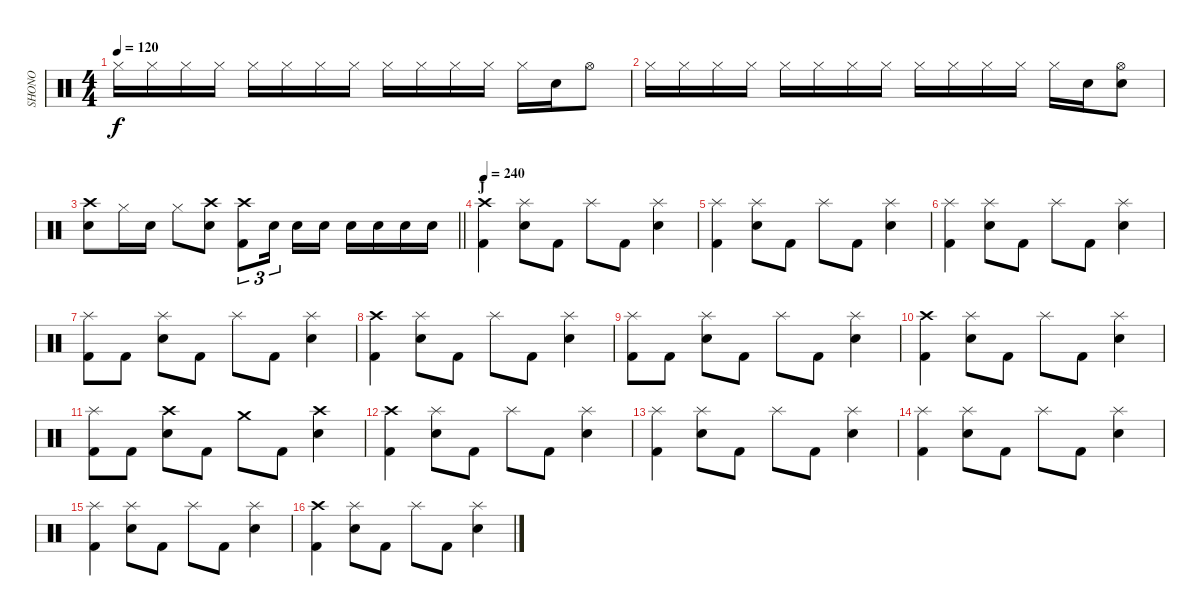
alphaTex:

\track ("SHONO" "SHONO") {instrument percussion}
\staff {score}
\articulation defaults
\ts (4 4)
\tempo 120
\clef neutral
\ks c "Hi-Hat (closed)".16{dy f} "Hi-Hat (closed)".16 "Hi-Hat (closed)".16 "Hi-Hat (closed)".16 "Hi-Hat (closed)".16 "Hi-Hat (closed)".16 "Hi-Hat (closed)".16 "Hi-Hat (closed)".16 "Hi-Hat (closed)".16 "Hi-Hat (closed)".16 "Hi-Hat (closed)".16 "Hi-Hat (closed)".16 "Hi-Hat (closed)".16 "Snare (hit) 2".16 "Hi-Hat (open)".8
|
"Hi-Hat (closed)".16 "Hi-Hat (closed)".16 "Hi-Hat (closed)".16 "Hi-Hat (closed)".16 "Hi-Hat (closed)".16 "Hi-Hat (closed)".16 "Hi-Hat (closed)".16 "Hi-Hat (closed)".16 "Hi-Hat (closed)".16 "Hi-Hat (closed)".16 "Hi-Hat (closed)".16 "Hi-Hat (closed)".16 "Hi-Hat (closed)".16 "Snare (hit) 2".16 ("Hi-Hat (open)" "Snare (hit) 2").8 |
\barLineRight lightlight
("Crash high (hit)" "Snare (hit) 2").8 "Hi-Hat (closed)".16 "Snare (hit) 2".16 "Hi-Hat (closed)".8 ("Crash high (hit)" "Snare (hit) 2").8 ("Crash high (hit)" "Kick (hit) 2").8{tu (3 2)} "Snare (hit) 2".16{tu (3 2)} "Snare (hit) 2".16 "Snare (hit) 2".16 "Snare (hit) 2".16 "Snare (hit) 2".16 "Snare (hit) 2".16 "Snare (hit) 2".16 |
\section ("" "J")
\tempo 240
("Crash high (hit)" "Kick (hit) 2").4 ("Splash (hit)" "Snare (hit) 2").8 "Kick (hit) 2".8 "Splash (hit)".8 "Kick (hit) 2".8 ("Splash (hit)" "Snare (hit) 2").4 |
("Splash (hit)" "Kick (hit) 2").4 ("Splash (hit)" "Snare (hit) 2").8 "Kick (hit) 2".8 "Splash (hit)".8 "Kick (hit) 2".8 ("Splash (hit)" "Snare (hit) 2").4 |
("Splash (hit)" "Kick (hit) 2").4 ("Splash (hit)" "Snare (hit) 2").8 "Kick (hit) 2".8 "Splash (hit)".8 "Kick (hit) 2".8 ("Splash (hit)" "Snare (hit) 2").4 |
("Splash (hit)" "Kick (hit) 2").8 "Kick (hit) 2".8 ("Splash (hit)" "Snare (hit) 2").8 "Kick (hit) 2".8 "Splash (hit)".8 "Kick (hit) 2".8 ("Splash (hit)" "Snare (hit) 2").4 |
("Crash high (hit)" "Kick (hit) 2").4 ("Splash (hit)" "Snare (hit) 2").8 "Kick (hit) 2".8 "Splash (hit)".8 "Kick (hit) 2".8 ("Splash (hit)" "Snare (hit) 2").4 |
("Splash (hit)" "Kick (hit) 2").8 "Kick (hit) 2".8 ("Splash (hit)" "Snare (hit) 2").8 "Kick (hit) 2".8 "Splash (hit)".8 "Kick (hit) 2".8 ("Splash (hit)" "Snare (hit) 2").4 |
("Crash high (hit)" "Kick (hit) 2").4 ("Splash (hit)" "Snare (hit) 2").8 "Kick (hit) 2".8 "Splash (hit)".8 "Kick (hit) 2".8 ("Splash (hit)" "Snare (hit) 2").4 |
("Splash (hit)" "Kick (hit) 2").8 "Kick (hit) 2".8 ("Crash high (hit)" "Snare (hit) 2").8 "Kick (hit) 2".8 "Crash medium (hit)".8 "Kick (hit) 2".8 ("Crash high (hit)" "Snare (hit) 2").4 |
("Crash high (hit)" "Kick (hit) 2").4 ("Splash (hit)" "Snare (hit) 2").8 "Kick (hit) 2".8 "Splash (hit)".8 "Kick (hit) 2".8 ("Splash (hit)" "Snare (hit) 2").4 |
("Splash (hit)" "Kick (hit) 2").4 ("Splash (hit)" "Snare (hit) 2").8 "Kick (hit) 2".8 "Splash (hit)".8 "Kick (hit) 2".8 ("Splash (hit)" "Snare (hit) 2").4 |
("Splash (hit)" "Kick (hit) 2").4 ("Splash (hit)" "Snare (hit) 2").8 "Kick (hit) 2".8 "Splash (hit)".8 "Kick (hit) 2".8 ("Splash (hit)" "Snare (hit) 2").4 |
("Splash (hit)" "Kick (hit) 2").4 ("Splash (hit)" "Snare (hit) 2").8 "Kick (hit) 2".8 "Splash (hit)".8 "Kick (hit) 2".8 ("Splash (hit)" "Snare (hit) 2").4 |
("Crash high (hit)" "Kick (hit) 2").4 ("Splash (hit)" "Snare (hit) 2").8 "Kick (hit) 2".8 "Splash (hit)".8 "Kick (hit) 2".8 ("Splash (hit)" "Snare (hit) 2").4
